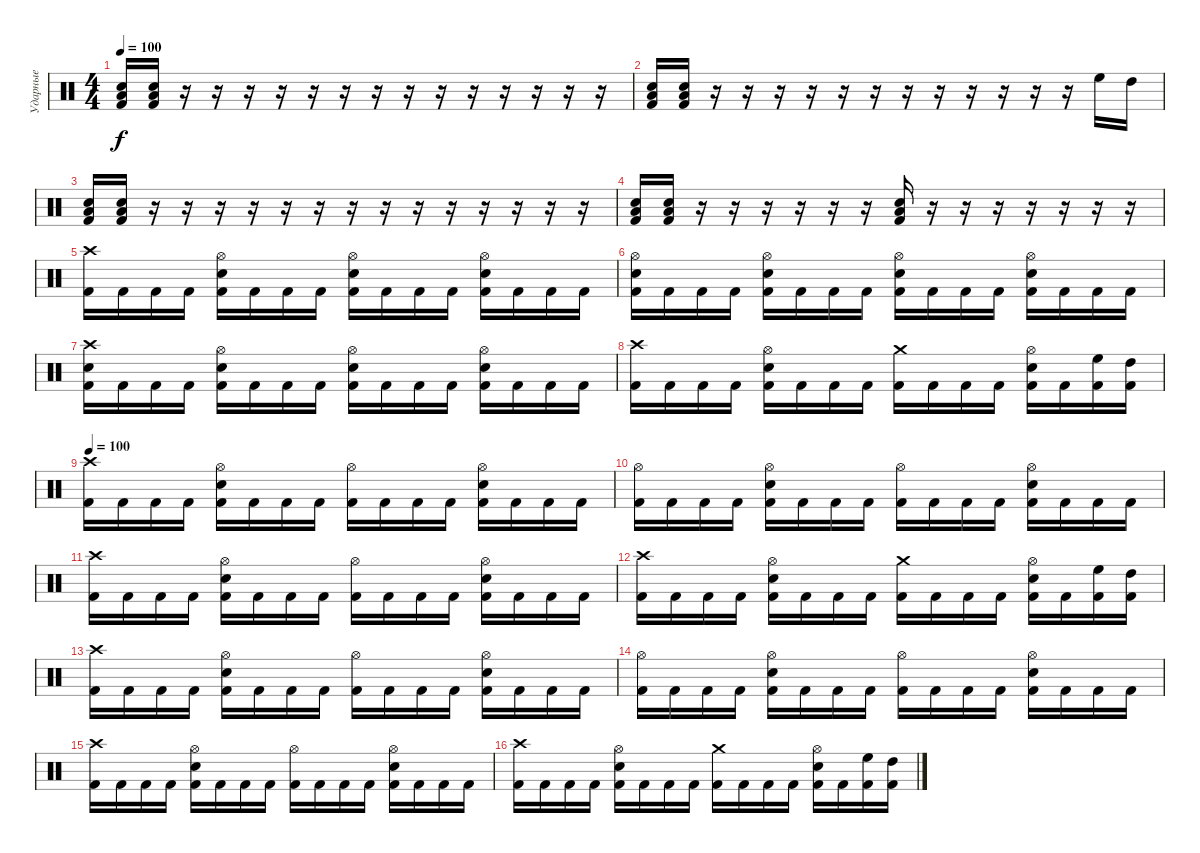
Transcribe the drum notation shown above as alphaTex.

\track ("Ударные" "Ударные") {instrument percussion}
\staff {score}
\articulation defaults
\ts (4 4)
\tempo 100
\clef neutral
\ks c
("Low Tom (hit)" "Electric Snare (hit)" "Kick (hit) 2").16{dy f} ("Low Tom (hit)" "Electric Snare (hit)" "Kick (hit) 2").16 r.16 r.16 r.16 r.16 r.16 r.16 r.16 r.16 r.16 r.16 r.16 r.16 r.16 r.16 |
("Low Tom (hit)" "Electric Snare (hit)" "Kick (hit) 2").16 ("Low Tom (hit)" "Electric Snare (hit)" "Kick (hit) 2").16 r.16 r.16 r.16 r.16 r.16 r.16 r.16 r.16 r.16 r.16 r.16 r.16 "High Floor Tom (hit)".16 "High Tom (hit)".16 |
("Low Tom (hit)" "Electric Snare (hit)" "Kick (hit) 2").16 ("Low Tom (hit)" "Electric Snare (hit)" "Kick (hit) 2").16 r.16 r.16 r.16 r.16 r.16 r.16 r.16 r.16 r.16 r.16 r.16 r.16 r.16 r.16 |
("Low Tom (hit)" "Electric Snare (hit)" "Kick (hit) 2").16 ("Low Tom (hit)" "Electric Snare (hit)" "Kick (hit) 2").16 r.16 r.16 r.16 r.16 r.16 r.16 ("Low Tom (hit)" "Electric Snare (hit)" "Kick (hit) 2").16 r.16 r.16 r.16 r.16 r.16 r.16 r.16 |
("Crash high (hit)" "Kick (hit) 2").16 "Kick (hit) 2".16 "Kick (hit) 2".16 "Kick (hit) 2".16 ("Hi-Hat (open)" "Electric Snare (hit)" "Kick (hit) 2").16 "Kick (hit) 2".16 "Kick (hit) 2".16 "Kick (hit) 2".16 ("Hi-Hat (open)" "Electric Snare (hit)" "Kick (hit) 2").16 "Kick (hit) 2".16 "Kick (hit) 2".16 "Kick (hit) 2".16 ("Hi-Hat (open)" "Electric Snare (hit)" "Kick (hit) 2").16 "Kick (hit) 2".16 "Kick (hit) 2".16 "Kick (hit) 2".16 |
("Hi-Hat (open)" "Electric Snare (hit)" "Kick (hit) 2").16 "Kick (hit) 2".16 "Kick (hit) 2".16 "Kick (hit) 2".16 ("Hi-Hat (open)" "Electric Snare (hit)" "Kick (hit) 2").16 "Kick (hit) 2".16 "Kick (hit) 2".16 "Kick (hit) 2".16 ("Hi-Hat (open)" "Electric Snare (hit)" "Kick (hit) 2").16 "Kick (hit) 2".16 "Kick (hit) 2".16 "Kick (hit) 2".16 ("Hi-Hat (open)" "Electric Snare (hit)" "Kick (hit) 2").16 "Kick (hit) 2".16 "Kick (hit) 2".16 "Kick (hit) 2".16 |
("Crash high (hit)" "Electric Snare (hit)" "Kick (hit) 2").16 "Kick (hit) 2".16 "Kick (hit) 2".16 "Kick (hit) 2".16 ("Hi-Hat (open)" "Electric Snare (hit)" "Kick (hit) 2").16 "Kick (hit) 2".16 "Kick (hit) 2".16 "Kick (hit) 2".16 ("Hi-Hat (open)" "Electric Snare (hit)" "Kick (hit) 2").16 "Kick (hit) 2".16 "Kick (hit) 2".16 "Kick (hit) 2".16 ("Hi-Hat (open)" "Electric Snare (hit)" "Kick (hit) 2").16 "Kick (hit) 2".16 "Kick (hit) 2".16 "Kick (hit) 2".16 |
("Crash high (hit)" "Kick (hit) 2").16 "Kick (hit) 2".16 "Kick (hit) 2".16 "Kick (hit) 2".16 ("Hi-Hat (open)" "Electric Snare (hit)" "Kick (hit) 2").16 "Kick (hit) 2".16 "Kick (hit) 2".16 "Kick (hit) 2".16 ("Crash medium (hit)" "Kick (hit) 2").16 "Kick (hit) 2".16 "Kick (hit) 2".16 "Kick (hit) 2".16 ("Hi-Hat (open)" "Electric Snare (hit)" "Kick (hit) 2").16 "Kick (hit) 2".16 ("High Floor Tom (hit)" "Kick (hit) 2").16 ("High Tom (hit)" "Kick (hit) 2").16 |
\tempo 100
("Crash high (hit)" "Kick (hit) 2").16 "Kick (hit) 2".16 "Kick (hit) 2".16 "Kick (hit) 2".16 ("Hi-Hat (open)" "Electric Snare (hit)" "Kick (hit) 2").16 "Kick (hit) 2".16 "Kick (hit) 2".16 "Kick (hit) 2".16 ("Hi-Hat (open)" "Kick (hit) 2").16 "Kick (hit) 2".16 "Kick (hit) 2".16 "Kick (hit) 2".16 ("Hi-Hat (open)" "Electric Snare (hit)" "Kick (hit) 2").16 "Kick (hit) 2".16 "Kick (hit) 2".16 "Kick (hit) 2".16 |
("Hi-Hat (open)" "Kick (hit) 2").16 "Kick (hit) 2".16 "Kick (hit) 2".16 "Kick (hit) 2".16 ("Hi-Hat (open)" "Electric Snare (hit)" "Kick (hit) 2").16 "Kick (hit) 2".16 "Kick (hit) 2".16 "Kick (hit) 2".16 ("Hi-Hat (open)" "Kick (hit) 2").16 "Kick (hit) 2".16 "Kick (hit) 2".16 "Kick (hit) 2".16 ("Hi-Hat (open)" "Electric Snare (hit)" "Kick (hit) 2").16 "Kick (hit) 2".16 "Kick (hit) 2".16 "Kick (hit) 2".16 |
("Crash high (hit)" "Kick (hit) 2").16 "Kick (hit) 2".16 "Kick (hit) 2".16 "Kick (hit) 2".16 ("Hi-Hat (open)" "Electric Snare (hit)" "Kick (hit) 2").16 "Kick (hit) 2".16 "Kick (hit) 2".16 "Kick (hit) 2".16 ("Hi-Hat (open)" "Kick (hit) 2").16 "Kick (hit) 2".16 "Kick (hit) 2".16 "Kick (hit) 2".16 ("Hi-Hat (open)" "Electric Snare (hit)" "Kick (hit) 2").16 "Kick (hit) 2".16 "Kick (hit) 2".16 "Kick (hit) 2".16 |
("Crash high (hit)" "Kick (hit) 2").16 "Kick (hit) 2".16 "Kick (hit) 2".16 "Kick (hit) 2".16 ("Hi-Hat (open)" "Electric Snare (hit)" "Kick (hit) 2").16 "Kick (hit) 2".16 "Kick (hit) 2".16 "Kick (hit) 2".16 ("Crash medium (hit)" "Kick (hit) 2").16 "Kick (hit) 2".16 "Kick (hit) 2".16 "Kick (hit) 2".16 ("Hi-Hat (open)" "Electric Snare (hit)" "Kick (hit) 2").16 "Kick (hit) 2".16 ("High Floor Tom (hit)" "Kick (hit) 2").16 ("High Tom (hit)" "Kick (hit) 2").16 |
("Crash high (hit)" "Kick (hit) 2").16 "Kick (hit) 2".16 "Kick (hit) 2".16 "Kick (hit) 2".16 ("Hi-Hat (open)" "Electric Snare (hit)" "Kick (hit) 2").16 "Kick (hit) 2".16 "Kick (hit) 2".16 "Kick (hit) 2".16 ("Hi-Hat (open)" "Kick (hit) 2").16 "Kick (hit) 2".16 "Kick (hit) 2".16 "Kick (hit) 2".16 ("Hi-Hat (open)" "Electric Snare (hit)" "Kick (hit) 2").16 "Kick (hit) 2".16 "Kick (hit) 2".16 "Kick (hit) 2".16 |
("Hi-Hat (open)" "Kick (hit) 2").16 "Kick (hit) 2".16 "Kick (hit) 2".16 "Kick (hit) 2".16 ("Hi-Hat (open)" "Electric Snare (hit)" "Kick (hit) 2").16 "Kick (hit) 2".16 "Kick (hit) 2".16 "Kick (hit) 2".16 ("Hi-Hat (open)" "Kick (hit) 2").16 "Kick (hit) 2".16 "Kick (hit) 2".16 "Kick (hit) 2".16 ("Hi-Hat (open)" "Electric Snare (hit)" "Kick (hit) 2").16 "Kick (hit) 2".16 "Kick (hit) 2".16 "Kick (hit) 2".16 |
("Crash high (hit)" "Kick (hit) 2").16 "Kick (hit) 2".16 "Kick (hit) 2".16 "Kick (hit) 2".16 ("Hi-Hat (open)" "Electric Snare (hit)" "Kick (hit) 2").16 "Kick (hit) 2".16 "Kick (hit) 2".16 "Kick (hit) 2".16 ("Hi-Hat (open)" "Kick (hit) 2").16 "Kick (hit) 2".16 "Kick (hit) 2".16 "Kick (hit) 2".16 ("Hi-Hat (open)" "Electric Snare (hit)" "Kick (hit) 2").16 "Kick (hit) 2".16 "Kick (hit) 2".16 "Kick (hit) 2".16 |
("Crash high (hit)" "Kick (hit) 2").16 "Kick (hit) 2".16 "Kick (hit) 2".16 "Kick (hit) 2".16 ("Hi-Hat (open)" "Electric Snare (hit)" "Kick (hit) 2").16 "Kick (hit) 2".16 "Kick (hit) 2".16 "Kick (hit) 2".16 ("Crash medium (hit)" "Kick (hit) 2").16 "Kick (hit) 2".16 "Kick (hit) 2".16 "Kick (hit) 2".16 ("Hi-Hat (open)" "Electric Snare (hit)" "Kick (hit) 2").16 "Kick (hit) 2".16 ("High Floor Tom (hit)" "Kick (hit) 2").16 ("High Tom (hit)" "Kick (hit) 2").16
